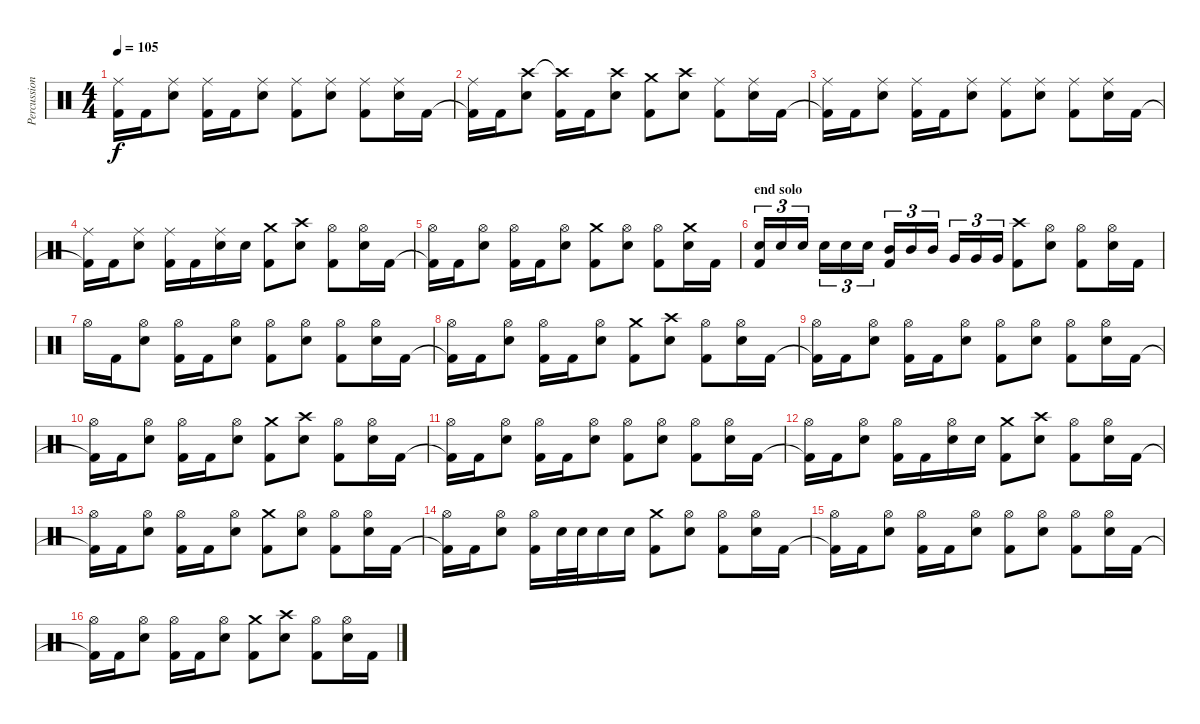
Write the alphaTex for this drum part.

\track ("Percussion" "Percussion") {instrument percussion}
\staff {score}
\articulation defaults
\ts (4 4)
\tempo 105
\clef neutral
\ks c
("Kick (hit) 2"{t} "Ride (middle)").16{dy f} "Kick (hit) 2".16 ("Electric Snare (hit)" "Ride (middle)").8 ("Kick (hit) 2" "Ride (middle)").16 "Kick (hit) 2".16 ("Electric Snare (hit)" "Ride (middle)").8 ("Kick (hit) 2" "Ride (middle)").8 ("Electric Snare (hit)" "Ride (middle)").8 ("Kick (hit) 2" "Ride (middle)").8 ("Electric Snare (hit)" "Ride (middle)").16 "Kick (hit) 2".16 |
("Kick (hit) 2"{t} "Ride (middle)").16 "Kick (hit) 2".16 ("Electric Snare (hit)" "Crash high (hit)").8 ("Kick (hit) 2" "Crash high (hit)"{t}).16 "Kick (hit) 2".16 ("Electric Snare (hit)" "Crash high (hit)").8 ("Kick (hit) 2" "Crash medium (hit)").8 ("Electric Snare (hit)" "Crash high (hit)").8 ("Kick (hit) 2" "Ride (middle)").8 ("Electric Snare (hit)" "Ride (middle)").16 "Kick (hit) 2".16 |
("Kick (hit) 2"{t} "Ride (middle)").16 "Kick (hit) 2".16 ("Electric Snare (hit)" "Ride (middle)").8 ("Kick (hit) 2" "Ride (middle)").16 "Kick (hit) 2".16 ("Electric Snare (hit)" "Ride (middle)").8 ("Kick (hit) 2" "Ride (middle)").8 ("Electric Snare (hit)" "Ride (middle)").8 ("Kick (hit) 2" "Ride (middle)").8 ("Electric Snare (hit)" "Ride (middle)").16 "Kick (hit) 2".16 |
("Kick (hit) 2"{t} "Ride (middle)").16 "Kick (hit) 2".16 ("Electric Snare (hit)" "Ride (middle)").8 ("Kick (hit) 2" "Ride (middle)").16 "Kick (hit) 2".16 ("Electric Snare (hit)" "Ride (middle)").16 "Electric Snare (hit)".16 ("Kick (hit) 2" "Crash medium (hit)").8 ("Electric Snare (hit)" "Crash high (hit)").8 ("Kick (hit) 2" "Hi-Hat (open)").8 ("Electric Snare (hit)" "Hi-Hat (open)").16 "Kick (hit) 2".16 |
("Kick (hit) 2"{t} "Hi-Hat (open)").16 "Kick (hit) 2".16 ("Electric Snare (hit)" "Hi-Hat (open)").8 ("Kick (hit) 2" "Hi-Hat (open)").16 "Kick (hit) 2".16 ("Electric Snare (hit)" "Hi-Hat (open)").8 ("Kick (hit) 2" "Crash medium (hit)").8 ("Electric Snare (hit)" "Hi-Hat (open)").8 ("Kick (hit) 2" "Hi-Hat (open)").8 ("Electric Snare (hit)" "Crash medium (hit)").16 "Kick (hit) 2".16 |
\section ("" "end solo")
("Kick (hit) 2" "Electric Snare (hit)").16{tu (3 2)} "Electric Snare (hit)".16{tu (3 2)} "Electric Snare (hit)".16{tu (3 2)} "Electric Snare (hit)".16{tu (3 2)} "Electric Snare (hit)".16{tu (3 2)} "Electric Snare (hit)".16{tu (3 2)} ("Kick (hit) 2" "Mid Tom (hit)").16{tu (3 2)} "Mid Tom (hit)".16{tu (3 2)} "Mid Tom (hit)".16{tu (3 2)} "Very Low Tom (hit)".16{tu (3 2)} "Very Low Tom (hit)".16{tu (3 2)} "Very Low Tom (hit)".16{tu (3 2)} ("Kick (hit) 2" "Crash high (hit)").8 ("Electric Snare (hit)" "Hi-Hat (open)").8 ("Kick (hit) 2" "Hi-Hat (open)").8 ("Electric Snare (hit)" "Hi-Hat (open)").16 "Kick (hit) 2".16 |
"Hi-Hat (open)".16 "Kick (hit) 2".16 ("Electric Snare (hit)" "Hi-Hat (open)").8 ("Kick (hit) 2" "Hi-Hat (open)").16 "Kick (hit) 2".16 ("Electric Snare (hit)" "Hi-Hat (open)").8 ("Kick (hit) 2" "Hi-Hat (open)").8 ("Electric Snare (hit)" "Hi-Hat (open)").8 ("Kick (hit) 2" "Hi-Hat (open)").8 ("Electric Snare (hit)" "Hi-Hat (open)").16 "Kick (hit) 2".16 |
("Kick (hit) 2"{t} "Hi-Hat (open)").16 "Kick (hit) 2".16 ("Electric Snare (hit)" "Hi-Hat (open)").8 ("Kick (hit) 2" "Hi-Hat (open)").16 "Kick (hit) 2".16 ("Electric Snare (hit)" "Hi-Hat (open)").8 ("Kick (hit) 2" "Crash medium (hit)").8 ("Electric Snare (hit)" "Crash high (hit)").8 ("Kick (hit) 2" "Hi-Hat (open)").8 ("Electric Snare (hit)" "Hi-Hat (open)").16 "Kick (hit) 2".16 |
("Kick (hit) 2"{t} "Hi-Hat (open)").16 "Kick (hit) 2".16 ("Electric Snare (hit)" "Hi-Hat (open)").8 ("Kick (hit) 2" "Hi-Hat (open)").16 "Kick (hit) 2".16 ("Electric Snare (hit)" "Hi-Hat (open)").8 ("Kick (hit) 2" "Hi-Hat (open)").8 ("Electric Snare (hit)" "Hi-Hat (open)").8 ("Kick (hit) 2" "Hi-Hat (open)").8 ("Electric Snare (hit)" "Hi-Hat (open)").16 "Kick (hit) 2".16 |
("Kick (hit) 2"{t} "Hi-Hat (open)").16 "Kick (hit) 2".16 ("Electric Snare (hit)" "Hi-Hat (open)").8 ("Kick (hit) 2" "Hi-Hat (open)").16 "Kick (hit) 2".16 ("Electric Snare (hit)" "Hi-Hat (open)").8 ("Kick (hit) 2" "Crash medium (hit)").8 ("Electric Snare (hit)" "Crash high (hit)").8 ("Kick (hit) 2" "Hi-Hat (open)").8 ("Electric Snare (hit)" "Hi-Hat (open)").16 "Kick (hit) 2".16 |
("Kick (hit) 2"{t} "Hi-Hat (open)").16 "Kick (hit) 2".16 ("Electric Snare (hit)" "Hi-Hat (open)").8 ("Kick (hit) 2" "Hi-Hat (open)").16 "Kick (hit) 2".16 ("Electric Snare (hit)" "Hi-Hat (open)").8 ("Kick (hit) 2" "Hi-Hat (open)").8 ("Electric Snare (hit)" "Hi-Hat (open)").8 ("Kick (hit) 2" "Hi-Hat (open)").8 ("Electric Snare (hit)" "Hi-Hat (open)").16 "Kick (hit) 2".16 |
("Kick (hit) 2"{t} "Hi-Hat (open)").16 "Kick (hit) 2".16 ("Electric Snare (hit)" "Hi-Hat (open)").8 ("Kick (hit) 2" "Hi-Hat (open)").16 "Kick (hit) 2".16 ("Electric Snare (hit)" "Hi-Hat (open)").16 "Electric Snare (hit)".16 ("Kick (hit) 2" "Crash medium (hit)").8 ("Electric Snare (hit)" "Crash high (hit)").8 ("Kick (hit) 2" "Hi-Hat (open)").8 ("Electric Snare (hit)" "Hi-Hat (open)").16 "Kick (hit) 2".16 |
("Kick (hit) 2"{t} "Hi-Hat (open)").16 "Kick (hit) 2".16 ("Electric Snare (hit)" "Hi-Hat (open)").8 ("Kick (hit) 2" "Hi-Hat (open)").16 "Kick (hit) 2".16 ("Electric Snare (hit)" "Hi-Hat (open)").8 ("Kick (hit) 2" "Crash medium (hit)").8 ("Electric Snare (hit)" "Hi-Hat (open)").8 ("Kick (hit) 2" "Hi-Hat (open)").8 ("Electric Snare (hit)" "Hi-Hat (open)").16 "Kick (hit) 2".16 |
("Kick (hit) 2"{t} "Hi-Hat (open)").16 "Kick (hit) 2".16 ("Electric Snare (hit)" "Hi-Hat (open)").8 ("Kick (hit) 2" "Hi-Hat (open)").16 "Electric Snare (hit)".32 "Electric Snare (hit)".32 "Electric Snare (hit)".16 "Electric Snare (hit)".16 ("Kick (hit) 2" "Crash medium (hit)").8 ("Electric Snare (hit)" "Hi-Hat (open)").8 ("Kick (hit) 2" "Hi-Hat (open)").8 ("Electric Snare (hit)" "Hi-Hat (open)").16 "Kick (hit) 2".16 |
("Kick (hit) 2"{t} "Hi-Hat (open)").16 "Kick (hit) 2".16 ("Electric Snare (hit)" "Hi-Hat (open)").8 ("Kick (hit) 2" "Hi-Hat (open)").16 "Kick (hit) 2".16 ("Electric Snare (hit)" "Hi-Hat (open)").8 ("Kick (hit) 2" "Hi-Hat (open)").8 ("Electric Snare (hit)" "Hi-Hat (open)").8 ("Kick (hit) 2" "Hi-Hat (open)").8 ("Electric Snare (hit)" "Hi-Hat (open)").16 "Kick (hit) 2".16 |
("Kick (hit) 2"{t} "Hi-Hat (open)").16 "Kick (hit) 2".16 ("Electric Snare (hit)" "Hi-Hat (open)").8 ("Kick (hit) 2" "Hi-Hat (open)").16 "Kick (hit) 2".16 ("Electric Snare (hit)" "Hi-Hat (open)").8 ("Kick (hit) 2" "Crash medium (hit)").8 ("Electric Snare (hit)" "Crash high (hit)").8 ("Kick (hit) 2" "Hi-Hat (open)").8 ("Electric Snare (hit)" "Hi-Hat (open)").16 "Kick (hit) 2".16
